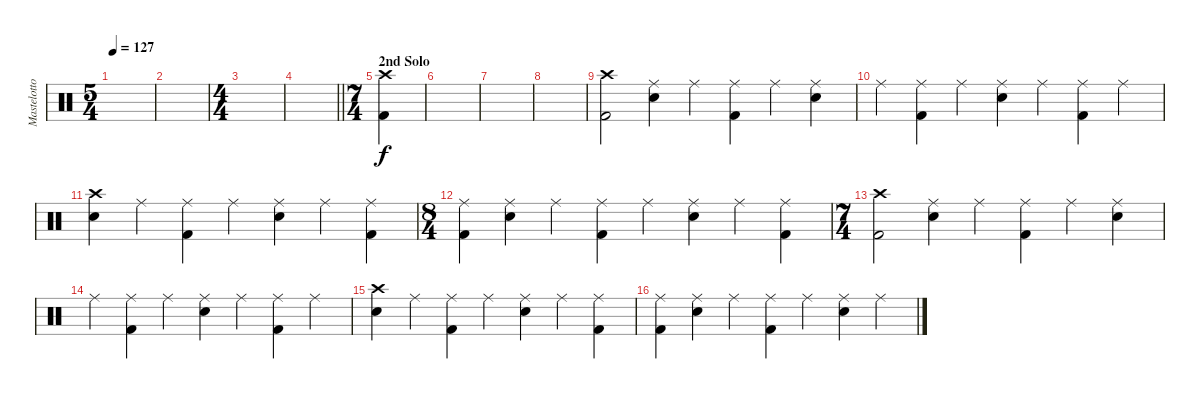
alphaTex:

\track ("Mastelotto" "Mastelotto") {instrument percussion}
\staff {score}
\articulation defaults
\ts (5 4)
\tempo 127
\clef neutral
\ks c
|
|
\ts (4 4)
|
\barLineRight lightlight
|
\ts (7 4)
\section ("" "2nd Solo")
("Crash high (hit)" "Kick (hit) 2").4 |
|
|
|
("Crash high (hit)" "Kick (hit) 2").2 ("Ride (middle)" "Electric Snare (hit)").4 "Ride (middle)".4 ("Ride (middle)" "Kick (hit) 2").4 "Ride (middle)".4 ("Ride (middle)" "Electric Snare (hit)").4 |
"Ride (middle)".4 ("Ride (middle)" "Kick (hit) 2").4 "Ride (middle)".4 ("Ride (middle)" "Electric Snare (hit)").4 "Ride (middle)".4 ("Ride (middle)" "Kick (hit) 2").4 "Ride (middle)".4 |
("Crash high (hit)" "Electric Snare (hit)").4 "Ride (middle)".4 ("Ride (middle)" "Kick (hit) 2").4 "Ride (middle)".4 ("Ride (middle)" "Electric Snare (hit)").4 "Ride (middle)".4 ("Ride (middle)" "Kick (hit) 2").4 |
\ts (8 4)
("Ride (middle)" "Kick (hit) 2").4 ("Ride (middle)" "Electric Snare (hit)").4 "Ride (middle)".4 ("Ride (middle)" "Kick (hit) 2").4 "Ride (middle)".4 ("Ride (middle)" "Electric Snare (hit)").4 "Ride (middle)".4 ("Ride (middle)" "Kick (hit) 2").4 |
\ts (7 4)
("Crash high (hit)" "Kick (hit) 2").2 ("Ride (middle)" "Electric Snare (hit)").4 "Ride (middle)".4 ("Ride (middle)" "Kick (hit) 2").4 "Ride (middle)".4 ("Ride (middle)" "Electric Snare (hit)").4 |
"Ride (middle)".4 ("Ride (middle)" "Kick (hit) 2").4 "Ride (middle)".4 ("Ride (middle)" "Electric Snare (hit)").4 "Ride (middle)".4 ("Ride (middle)" "Kick (hit) 2").4 "Ride (middle)".4 |
("Crash high (hit)" "Electric Snare (hit)").4 "Ride (middle)".4 ("Ride (middle)" "Kick (hit) 2").4 "Ride (middle)".4 ("Ride (middle)" "Electric Snare (hit)").4 "Ride (middle)".4 ("Ride (middle)" "Kick (hit) 2").4 |
("Ride (middle)" "Kick (hit) 2").4 ("Ride (middle)" "Electric Snare (hit)").4 "Ride (middle)".4 ("Ride (middle)" "Kick (hit) 2").4 "Ride (middle)".4 ("Ride (middle)" "Electric Snare (hit)").4 "Ride (middle)".4
